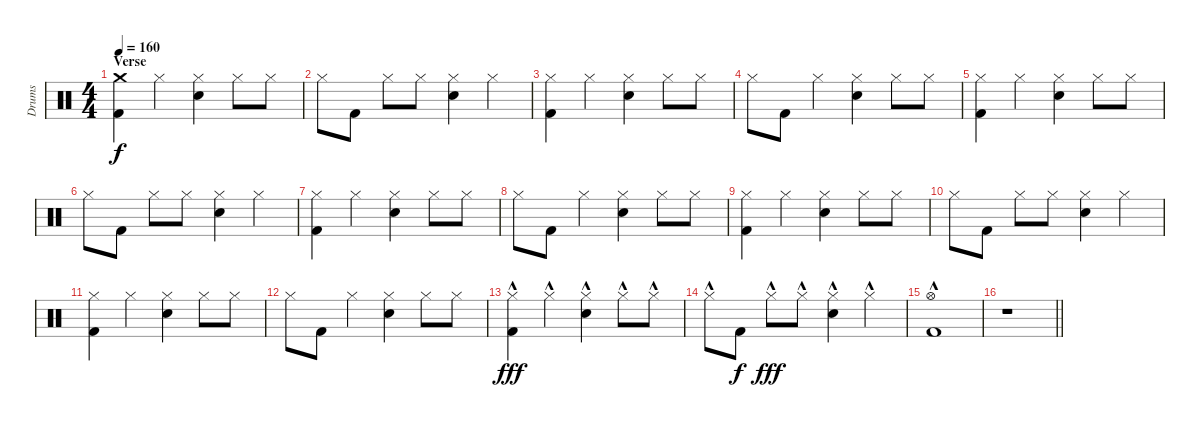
\track ("Drums" "Drums") {instrument percussion}
\staff {score}
\articulation defaults
\ts (4 4)
\section ("" "Verse")
\tempo 160
\clef neutral
\ks c
("Crash medium (hit)" "Kick (hit) 2").4{dy f} "Hi-Hat (closed)".4 ("Hi-Hat (closed)" "Electric Snare (hit)").4 "Hi-Hat (closed)".8 "Hi-Hat (closed)".8 |
"Hi-Hat (closed)".8 "Kick (hit) 2".8 "Hi-Hat (closed)".8 "Hi-Hat (closed)".8 ("Hi-Hat (closed)" "Electric Snare (hit)").4 "Hi-Hat (closed)".4 |
("Hi-Hat (closed)" "Kick (hit) 2").4 "Hi-Hat (closed)".4 ("Hi-Hat (closed)" "Electric Snare (hit)").4 "Hi-Hat (closed)".8 "Hi-Hat (closed)".8 |
"Hi-Hat (closed)".8 "Kick (hit) 2".8 "Hi-Hat (closed)".4 ("Hi-Hat (closed)" "Electric Snare (hit)").4 "Hi-Hat (closed)".8 "Hi-Hat (closed)".8 |
("Hi-Hat (closed)" "Kick (hit) 2").4 "Hi-Hat (closed)".4 ("Hi-Hat (closed)" "Electric Snare (hit)").4 "Hi-Hat (closed)".8 "Hi-Hat (closed)".8 |
"Hi-Hat (closed)".8 "Kick (hit) 2".8 "Hi-Hat (closed)".8 "Hi-Hat (closed)".8 ("Hi-Hat (closed)" "Electric Snare (hit)").4 "Hi-Hat (closed)".4 |
("Hi-Hat (closed)" "Kick (hit) 2").4 "Hi-Hat (closed)".4 ("Hi-Hat (closed)" "Electric Snare (hit)").4 "Hi-Hat (closed)".8 "Hi-Hat (closed)".8 |
"Hi-Hat (closed)".8 "Kick (hit) 2".8 "Hi-Hat (closed)".4 ("Hi-Hat (closed)" "Electric Snare (hit)").4 "Hi-Hat (closed)".8 "Hi-Hat (closed)".8 |
("Hi-Hat (closed)" "Kick (hit) 2").4 "Hi-Hat (closed)".4 ("Hi-Hat (closed)" "Electric Snare (hit)").4 "Hi-Hat (closed)".8 "Hi-Hat (closed)".8 |
"Hi-Hat (closed)".8 "Kick (hit) 2".8 "Hi-Hat (closed)".8 "Hi-Hat (closed)".8 ("Hi-Hat (closed)" "Electric Snare (hit)").4 "Hi-Hat (closed)".4 |
("Hi-Hat (closed)" "Kick (hit) 2").4 "Hi-Hat (closed)".4 ("Hi-Hat (closed)" "Electric Snare (hit)").4 "Hi-Hat (closed)".8 "Hi-Hat (closed)".8 |
"Hi-Hat (closed)".8 "Kick (hit) 2".8 "Hi-Hat (closed)".4 ("Hi-Hat (closed)" "Electric Snare (hit)").4 "Hi-Hat (closed)".8 "Hi-Hat (closed)".8 |
("Hi-Hat (closed)"{hac} "Kick (hit) 2").4{dy fff} "Hi-Hat (closed)"{hac}.4 ("Hi-Hat (closed)"{hac} "Electric Snare (hit)").4 "Hi-Hat (closed)"{hac}.8 "Hi-Hat (closed)"{hac}.8 |
"Hi-Hat (closed)"{hac}.8 "Kick (hit) 2".8{dy f} "Hi-Hat (closed)"{hac}.8{dy fff} "Hi-Hat (closed)"{hac}.8 ("Hi-Hat (closed)"{hac} "Electric Snare (hit)").4 "Hi-Hat (closed)"{hac}.4 |
("Hi-Hat (open)"{hac} "Kick (hit) 2").1 |
\barLineRight lightlight
r.1
